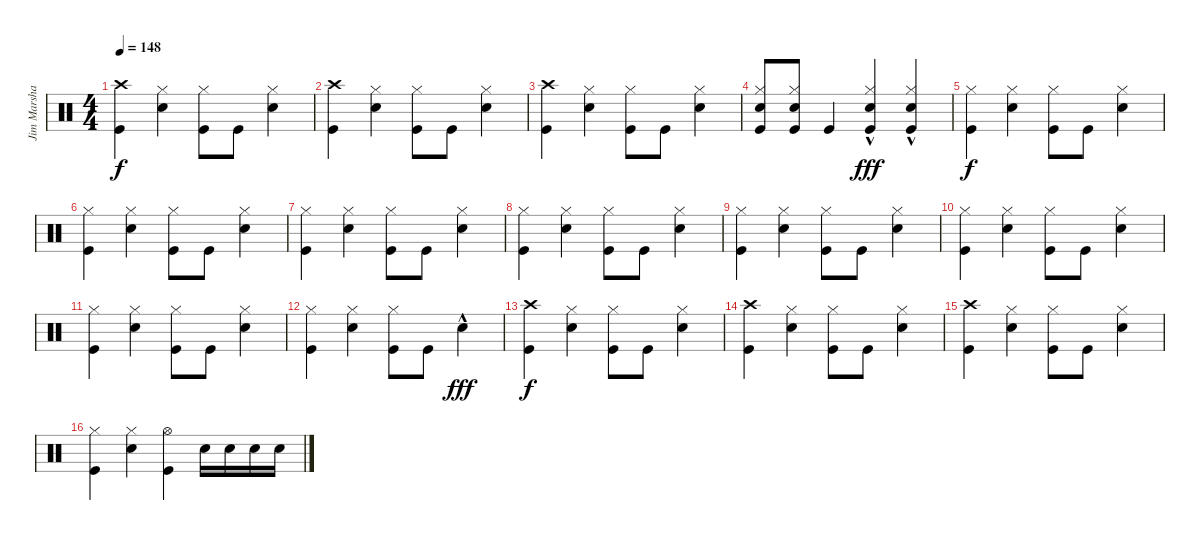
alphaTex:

\track ("Jim Marshall Drums" "Jim Marsha") {instrument percussion}
\staff {score}
\articulation defaults
\ts (4 4)
\tempo 148
\clef neutral
\ks c
("Crash high (hit)" "Kick (hit)").4{dy f} ("Hi-Hat (closed)" "Snare (hit) 2").4 ("Hi-Hat (closed)" "Kick (hit)").8 "Kick (hit)".8 ("Hi-Hat (closed)" "Snare (hit) 2").4 |
("Crash high (hit)" "Kick (hit)").4 ("Hi-Hat (closed)" "Snare (hit) 2").4 ("Hi-Hat (closed)" "Kick (hit)").8 "Kick (hit)".8 ("Hi-Hat (closed)" "Snare (hit) 2").4 |
("Crash high (hit)" "Kick (hit)").4 ("Hi-Hat (closed)" "Snare (hit) 2").4 ("Hi-Hat (closed)" "Kick (hit)").8 "Kick (hit)".8 ("Hi-Hat (closed)" "Snare (hit) 2").4 |
("Hi-Hat (closed)" "Snare (hit) 2" "Kick (hit)").8 ("Hi-Hat (closed)" "Snare (hit) 2" "Kick (hit)").8 "Kick (hit)".4 ("Hi-Hat (closed)"{hac} "Snare (hit) 2" "Kick (hit)").4{dy fff} ("Hi-Hat (closed)"{hac} "Snare (hit) 2" "Kick (hit)").4 |
("Hi-Hat (closed)" "Kick (hit)").4{dy f} ("Hi-Hat (closed)" "Snare (hit) 2").4 ("Hi-Hat (closed)" "Kick (hit)").8 "Kick (hit)".8 ("Hi-Hat (closed)" "Snare (hit) 2").4 |
("Hi-Hat (closed)" "Kick (hit)").4 ("Hi-Hat (closed)" "Snare (hit) 2").4 ("Hi-Hat (closed)" "Kick (hit)").8 "Kick (hit)".8 ("Hi-Hat (closed)" "Snare (hit) 2").4 |
("Hi-Hat (closed)" "Kick (hit)").4 ("Hi-Hat (closed)" "Snare (hit) 2").4 ("Hi-Hat (closed)" "Kick (hit)").8 "Kick (hit)".8 ("Hi-Hat (closed)" "Snare (hit) 2").4 |
("Hi-Hat (closed)" "Kick (hit)").4 ("Hi-Hat (closed)" "Snare (hit) 2").4 ("Hi-Hat (closed)" "Kick (hit)").8 "Kick (hit)".8 ("Hi-Hat (closed)" "Snare (hit) 2").4 |
("Hi-Hat (closed)" "Kick (hit)").4 ("Hi-Hat (closed)" "Snare (hit) 2").4 ("Hi-Hat (closed)" "Kick (hit)").8 "Kick (hit)".8 ("Hi-Hat (closed)" "Snare (hit) 2").4 |
("Hi-Hat (closed)" "Kick (hit)").4 ("Hi-Hat (closed)" "Snare (hit) 2").4 ("Hi-Hat (closed)" "Kick (hit)").8 "Kick (hit)".8 ("Hi-Hat (closed)" "Snare (hit) 2").4 |
("Hi-Hat (closed)" "Kick (hit)").4 ("Hi-Hat (closed)" "Snare (hit) 2").4 ("Hi-Hat (closed)" "Kick (hit)").8 "Kick (hit)".8 ("Hi-Hat (closed)" "Snare (hit) 2").4 |
("Hi-Hat (closed)" "Kick (hit)").4 ("Hi-Hat (closed)" "Snare (hit) 2").4 ("Hi-Hat (closed)" "Kick (hit)").8 "Kick (hit)".8 "Snare (hit) 2"{hac}.4{dy fff} |
("Crash high (hit)" "Kick (hit)").4{dy f} ("Hi-Hat (closed)" "Snare (hit) 2").4 ("Hi-Hat (closed)" "Kick (hit)").8 "Kick (hit)".8 ("Hi-Hat (closed)" "Snare (hit) 2").4 |
("Crash high (hit)" "Kick (hit)").4 ("Hi-Hat (closed)" "Snare (hit) 2").4 ("Hi-Hat (closed)" "Kick (hit)").8 "Kick (hit)".8 ("Hi-Hat (closed)" "Snare (hit) 2").4 |
("Crash high (hit)" "Kick (hit)").4 ("Hi-Hat (closed)" "Snare (hit) 2").4 ("Hi-Hat (closed)" "Kick (hit)").8 "Kick (hit)".8 ("Hi-Hat (closed)" "Snare (hit) 2").4 |
("Hi-Hat (closed)" "Kick (hit)").4 ("Hi-Hat (closed)" "Snare (hit) 2").4 ("Hi-Hat (open)" "Kick (hit)").4 "Snare (hit) 2".16 "Snare (hit) 2".16 "Snare (hit) 2".16 "Snare (hit) 2".16
